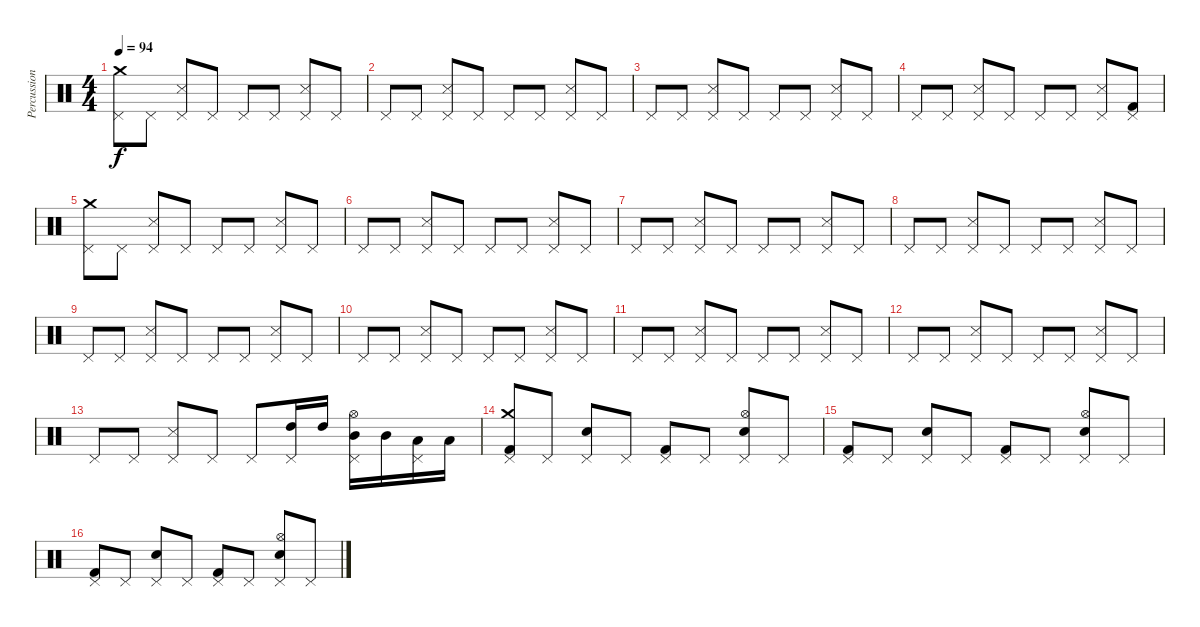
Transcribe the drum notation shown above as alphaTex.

\track ("Percussions" "Percussion") {instrument percussion}
\staff {score}
\articulation defaults
\ts (4 4)
\tempo 94
\clef neutral
\ks c
("Pedal Hi-Hat (hit)" "Crash medium (hit)").8{dy f} "Pedal Hi-Hat (hit)".8 ("Pedal Hi-Hat (hit)" "Snare (side stick) 3").8 "Pedal Hi-Hat (hit)".8 "Pedal Hi-Hat (hit)".8 "Pedal Hi-Hat (hit)".8 ("Pedal Hi-Hat (hit)" "Snare (side stick) 3").8 "Pedal Hi-Hat (hit)".8 |
"Pedal Hi-Hat (hit)".8 "Pedal Hi-Hat (hit)".8 ("Pedal Hi-Hat (hit)" "Snare (side stick) 3").8 "Pedal Hi-Hat (hit)".8 "Pedal Hi-Hat (hit)".8 "Pedal Hi-Hat (hit)".8 ("Pedal Hi-Hat (hit)" "Snare (side stick) 3").8 "Pedal Hi-Hat (hit)".8 |
"Pedal Hi-Hat (hit)".8 "Pedal Hi-Hat (hit)".8 ("Pedal Hi-Hat (hit)" "Snare (side stick) 3").8 "Pedal Hi-Hat (hit)".8 "Pedal Hi-Hat (hit)".8 "Pedal Hi-Hat (hit)".8 ("Pedal Hi-Hat (hit)" "Snare (side stick) 3").8 "Pedal Hi-Hat (hit)".8 |
"Pedal Hi-Hat (hit)".8 "Pedal Hi-Hat (hit)".8 ("Pedal Hi-Hat (hit)" "Snare (side stick) 3").8 "Pedal Hi-Hat (hit)".8 "Pedal Hi-Hat (hit)".8 "Pedal Hi-Hat (hit)".8 ("Pedal Hi-Hat (hit)" "Snare (side stick) 3").8 ("Pedal Hi-Hat (hit)" "Kick (hit) 2").8 |
("Pedal Hi-Hat (hit)" "Crash medium (hit)").8 "Pedal Hi-Hat (hit)".8 ("Pedal Hi-Hat (hit)" "Snare (side stick) 3").8 "Pedal Hi-Hat (hit)".8 "Pedal Hi-Hat (hit)".8 "Pedal Hi-Hat (hit)".8 ("Pedal Hi-Hat (hit)" "Snare (side stick) 3").8 "Pedal Hi-Hat (hit)".8 |
"Pedal Hi-Hat (hit)".8 "Pedal Hi-Hat (hit)".8 ("Pedal Hi-Hat (hit)" "Snare (side stick) 3").8 "Pedal Hi-Hat (hit)".8 "Pedal Hi-Hat (hit)".8 "Pedal Hi-Hat (hit)".8 ("Pedal Hi-Hat (hit)" "Snare (side stick) 3").8 "Pedal Hi-Hat (hit)".8 |
"Pedal Hi-Hat (hit)".8 "Pedal Hi-Hat (hit)".8 ("Pedal Hi-Hat (hit)" "Snare (side stick) 3").8 "Pedal Hi-Hat (hit)".8 "Pedal Hi-Hat (hit)".8 "Pedal Hi-Hat (hit)".8 ("Pedal Hi-Hat (hit)" "Snare (side stick) 3").8 "Pedal Hi-Hat (hit)".8 |
"Pedal Hi-Hat (hit)".8 "Pedal Hi-Hat (hit)".8 ("Pedal Hi-Hat (hit)" "Snare (side stick) 3").8 "Pedal Hi-Hat (hit)".8 "Pedal Hi-Hat (hit)".8 "Pedal Hi-Hat (hit)".8 ("Pedal Hi-Hat (hit)" "Snare (side stick) 3").8 "Pedal Hi-Hat (hit)".8 |
"Pedal Hi-Hat (hit)".8 "Pedal Hi-Hat (hit)".8 ("Pedal Hi-Hat (hit)" "Snare (side stick) 3").8 "Pedal Hi-Hat (hit)".8 "Pedal Hi-Hat (hit)".8 "Pedal Hi-Hat (hit)".8 ("Pedal Hi-Hat (hit)" "Snare (side stick) 3").8 "Pedal Hi-Hat (hit)".8 |
"Pedal Hi-Hat (hit)".8 "Pedal Hi-Hat (hit)".8 ("Pedal Hi-Hat (hit)" "Snare (side stick) 3").8 "Pedal Hi-Hat (hit)".8 "Pedal Hi-Hat (hit)".8 "Pedal Hi-Hat (hit)".8 ("Pedal Hi-Hat (hit)" "Snare (side stick) 3").8 "Pedal Hi-Hat (hit)".8 |
"Pedal Hi-Hat (hit)".8 "Pedal Hi-Hat (hit)".8 ("Pedal Hi-Hat (hit)" "Snare (side stick) 3").8 "Pedal Hi-Hat (hit)".8 "Pedal Hi-Hat (hit)".8 "Pedal Hi-Hat (hit)".8 ("Pedal Hi-Hat (hit)" "Snare (side stick) 3").8 "Pedal Hi-Hat (hit)".8 |
"Pedal Hi-Hat (hit)".8 "Pedal Hi-Hat (hit)".8 ("Pedal Hi-Hat (hit)" "Snare (side stick) 3").8 "Pedal Hi-Hat (hit)".8 "Pedal Hi-Hat (hit)".8 "Pedal Hi-Hat (hit)".8 ("Pedal Hi-Hat (hit)" "Snare (side stick) 3").8 "Pedal Hi-Hat (hit)".8 |
"Pedal Hi-Hat (hit)".8 "Pedal Hi-Hat (hit)".8 ("Pedal Hi-Hat (hit)" "Snare (side stick) 3").8 "Pedal Hi-Hat (hit)".8 "Pedal Hi-Hat (hit)".8 ("Pedal Hi-Hat (hit)" "High Tom (hit)").16 "High Tom (hit)".16 ("Pedal Hi-Hat (hit)" "Mid Tom (hit)" "Hi-Hat (open)").16 "Mid Tom (hit)".16 ("Pedal Hi-Hat (hit)" "Low Tom (hit)").16 "Low Tom (hit)".16 |
("Pedal Hi-Hat (hit)" "Crash medium (hit)" "Kick (hit) 2").8 "Pedal Hi-Hat (hit)".8 ("Pedal Hi-Hat (hit)" "Electric Snare (hit)").8 "Pedal Hi-Hat (hit)".8 ("Pedal Hi-Hat (hit)" "Kick (hit) 2").8 "Pedal Hi-Hat (hit)".8 ("Pedal Hi-Hat (hit)" "Electric Snare (hit)" "Hi-Hat (open)").8 "Pedal Hi-Hat (hit)".8 |
("Pedal Hi-Hat (hit)" "Kick (hit) 2").8 "Pedal Hi-Hat (hit)".8 ("Pedal Hi-Hat (hit)" "Electric Snare (hit)").8 "Pedal Hi-Hat (hit)".8 ("Pedal Hi-Hat (hit)" "Kick (hit) 2").8 "Pedal Hi-Hat (hit)".8 ("Pedal Hi-Hat (hit)" "Electric Snare (hit)" "Hi-Hat (open)").8 "Pedal Hi-Hat (hit)".8 |
("Pedal Hi-Hat (hit)" "Kick (hit) 2").8 "Pedal Hi-Hat (hit)".8 ("Pedal Hi-Hat (hit)" "Electric Snare (hit)").8 "Pedal Hi-Hat (hit)".8 ("Pedal Hi-Hat (hit)" "Kick (hit) 2").8 "Pedal Hi-Hat (hit)".8 ("Pedal Hi-Hat (hit)" "Electric Snare (hit)" "Hi-Hat (open)").8 "Pedal Hi-Hat (hit)".8
